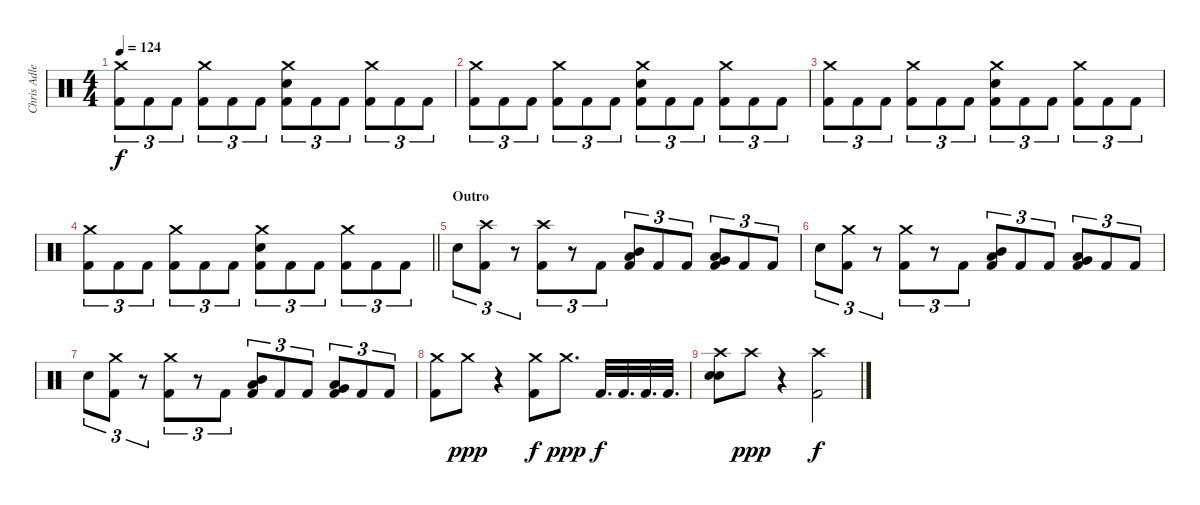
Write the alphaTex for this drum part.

\track ("Chris Adler" "Chris Adle") {instrument percussion}
\staff {score}
\articulation defaults
\ts (4 4)
\tempo 124
\clef neutral
\ks c
("Crash medium (hit)" "Kick (hit) 2").8{tu (3 2) dy f} "Kick (hit) 2".8{tu (3 2)} "Kick (hit) 2".8{tu (3 2)} ("Crash medium (hit)" "Kick (hit) 2").8{tu (3 2)} "Kick (hit) 2".8{tu (3 2)} "Kick (hit) 2".8{tu (3 2)} ("Crash medium (hit)" "Electric Snare (hit)" "Kick (hit) 2").8{tu (3 2)} "Kick (hit) 2".8{tu (3 2)} "Kick (hit) 2".8{tu (3 2)} ("Crash medium (hit)" "Kick (hit) 2").8{tu (3 2)} "Kick (hit) 2".8{tu (3 2)} "Kick (hit) 2".8{tu (3 2)} |
("Crash medium (hit)" "Kick (hit) 2").8{tu (3 2)} "Kick (hit) 2".8{tu (3 2)} "Kick (hit) 2".8{tu (3 2)} ("Crash medium (hit)" "Kick (hit) 2").8{tu (3 2)} "Kick (hit) 2".8{tu (3 2)} "Kick (hit) 2".8{tu (3 2)} ("Crash medium (hit)" "Electric Snare (hit)" "Kick (hit) 2").8{tu (3 2)} "Kick (hit) 2".8{tu (3 2)} "Kick (hit) 2".8{tu (3 2)} ("Crash medium (hit)" "Kick (hit) 2").8{tu (3 2)} "Kick (hit) 2".8{tu (3 2)} "Kick (hit) 2".8{tu (3 2)} |
("Crash medium (hit)" "Kick (hit) 2").8{tu (3 2)} "Kick (hit) 2".8{tu (3 2)} "Kick (hit) 2".8{tu (3 2)} ("Crash medium (hit)" "Kick (hit) 2").8{tu (3 2)} "Kick (hit) 2".8{tu (3 2)} "Kick (hit) 2".8{tu (3 2)} ("Crash medium (hit)" "Electric Snare (hit)" "Kick (hit) 2").8{tu (3 2)} "Kick (hit) 2".8{tu (3 2)} "Kick (hit) 2".8{tu (3 2)} ("Crash medium (hit)" "Kick (hit) 2").8{tu (3 2)} "Kick (hit) 2".8{tu (3 2)} "Kick (hit) 2".8{tu (3 2)} |
\barLineRight lightlight
("Crash medium (hit)" "Kick (hit) 2").8{tu (3 2)} "Kick (hit) 2".8{tu (3 2)} "Kick (hit) 2".8{tu (3 2)} ("Crash medium (hit)" "Kick (hit) 2").8{tu (3 2)} "Kick (hit) 2".8{tu (3 2)} "Kick (hit) 2".8{tu (3 2)} ("Crash medium (hit)" "Electric Snare (hit)" "Kick (hit) 2").8{tu (3 2)} "Kick (hit) 2".8{tu (3 2)} "Kick (hit) 2".8{tu (3 2)} ("Crash medium (hit)" "Kick (hit) 2").8{tu (3 2)} "Kick (hit) 2".8{tu (3 2)} "Kick (hit) 2".8{tu (3 2)} |
\section ("" "Outro")
"Electric Snare (hit)".8{tu (3 2)} ("Crash high (hit)" "Kick (hit) 2").8{tu (3 2)} r.8{tu (3 2)} ("Crash high (hit)" "Kick (hit) 2").8{tu (3 2)} r.8{tu (3 2)} "Kick (hit) 2".8{tu (3 2)} ("Mid Tom (hit)" "Low Tom (hit)" "Kick (hit) 2").8{tu (3 2)} "Kick (hit) 2".8{tu (3 2)} "Kick (hit) 2".8{tu (3 2)} ("Low Tom (hit)" "Very Low Tom (hit)" "Kick (hit) 2").8{tu (3 2)} "Kick (hit) 2".8{tu (3 2)} "Kick (hit) 2".8{tu (3 2)} |
"Electric Snare (hit)".8{tu (3 2)} ("Crash medium (hit)" "Kick (hit) 2").8{tu (3 2)} r.8{tu (3 2)} ("Crash medium (hit)" "Kick (hit) 2").8{tu (3 2)} r.8{tu (3 2)} "Kick (hit) 2".8{tu (3 2)} ("Mid Tom (hit)" "Low Tom (hit)" "Kick (hit) 2").8{tu (3 2)} "Kick (hit) 2".8{tu (3 2)} "Kick (hit) 2".8{tu (3 2)} ("Low Tom (hit)" "Very Low Tom (hit)" "Kick (hit) 2").8{tu (3 2)} "Kick (hit) 2".8{tu (3 2)} "Kick (hit) 2".8{tu (3 2)} |
"Electric Snare (hit)".8{tu (3 2)} ("Crash medium (hit)" "Kick (hit) 2").8{tu (3 2)} r.8{tu (3 2)} ("Crash medium (hit)" "Kick (hit) 2").8{tu (3 2)} r.8{tu (3 2)} "Kick (hit) 2".8{tu (3 2)} ("Mid Tom (hit)" "Low Tom (hit)" "Kick (hit) 2").8{tu (3 2)} "Kick (hit) 2".8{tu (3 2)} "Kick (hit) 2".8{tu (3 2)} ("Low Tom (hit)" "Very Low Tom (hit)" "Kick (hit) 2").8{tu (3 2)} "Kick (hit) 2".8{tu (3 2)} "Kick (hit) 2".8{tu (3 2)} |
("Crash medium (hit)" "Kick (hit) 2").8 "Crash medium (hit)".8{dy ppp} r.4 ("Crash medium (hit)" "Kick (hit) 2").8{dy f} "Crash medium (hit)".8{d dy ppp} "Kick (hit) 2".32{d dy f} "Kick (hit) 2".32{d} "Kick (hit) 2".32{d} "Kick (hit) 2".32{d} |
("Crash high (hit)" "Electric Snare (hit)" "Snare (hit) 2").8 "Crash high (hit)".8{dy ppp} r.4 ("Crash high (hit)" "Kick (hit) 2").2{dy f}
